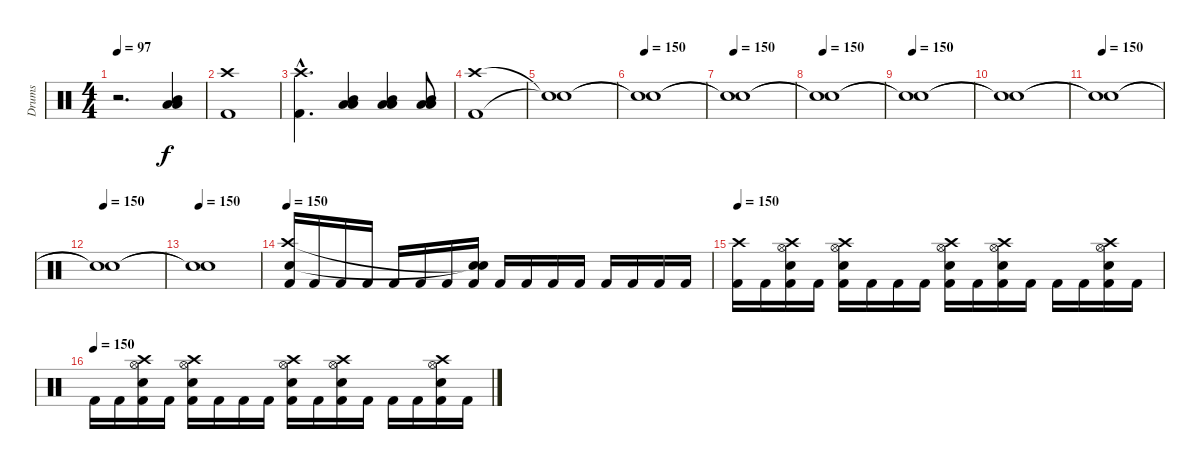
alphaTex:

\track ("Drums" "Drums") {instrument percussion}
\staff {score}
\articulation defaults
\ts (4 4)
\tempo 97
\clef neutral
\ks c
r.2{d dy f} ("Mid Tom (hit)" "Low Tom (hit)" "Low Tom (hit)").4 |
("Kick (hit) 2" "Crash high (hit)").1 |
("Kick (hit) 2"{hac} "Crash high (hit)"{hac}).4{d} ("Mid Tom (hit)" "Low Tom (hit)" "Low Tom (hit)").4 ("Mid Tom (hit)" "Low Tom (hit)" "Low Tom (hit)").4 ("Mid Tom (hit)" "Low Tom (hit)" "Low Tom (hit)").8 |
("Kick (hit) 2" "Crash high (hit)").1 |
("Snare (hit)"{t} "Snare (hit)"{t}).1 |
\tempo 150
("Snare (hit)"{t} "Snare (hit)"{t}).1 |
\tempo 150
("Snare (hit)"{t} "Snare (hit)"{t}).1 |
\tempo 150
("Snare (hit)"{t} "Snare (hit)"{t}).1 |
\tempo 150
("Snare (hit)"{t} "Snare (hit)"{t}).1 |
("Snare (hit)"{t} "Snare (hit)"{t}).1 |
\tempo 150
("Snare (hit)"{t} "Snare (hit)"{t}).1 |
\tempo 150
("Snare (hit)"{t} "Snare (hit)"{t}).1 |
\tempo 150
("Snare (hit)"{t} "Snare (hit)"{t}).1 |
\tempo 150
("Kick (hit) 2" "Electric Snare (hit)" "Crash high (hit)").16 "Kick (hit) 2".16 "Kick (hit) 2".16 "Kick (hit) 2".16 "Kick (hit) 2".16 "Kick (hit) 2".16 "Kick (hit) 2".16 ("Kick (hit) 2" "Snare (hit)"{t} "Snare (hit)"{t}).16 "Kick (hit) 2".16 "Kick (hit) 2".16 "Kick (hit) 2".16 "Kick (hit) 2".16 "Kick (hit) 2".16 "Kick (hit) 2".16 "Kick (hit) 2".16 "Kick (hit) 2".16 |
\tempo 150
("Kick (hit) 2" "Crash high (hit)").16 "Kick (hit) 2".16 ("Kick (hit) 2" "Electric Snare (hit)" "Hi-Hat (open)" "Crash high (hit)").16 "Kick (hit) 2".16 ("Kick (hit) 2" "Electric Snare (hit)" "Hi-Hat (open)" "Crash high (hit)").16 "Kick (hit) 2".16 "Kick (hit) 2".16 "Kick (hit) 2".16 ("Kick (hit) 2" "Electric Snare (hit)" "Hi-Hat (open)" "Crash high (hit)").16 "Kick (hit) 2".16 ("Kick (hit) 2" "Electric Snare (hit)" "Hi-Hat (open)" "Crash high (hit)").16 "Kick (hit) 2".16 "Kick (hit) 2".16 "Kick (hit) 2".16 ("Kick (hit) 2" "Electric Snare (hit)" "Hi-Hat (open)" "Crash high (hit)").16 "Kick (hit) 2".16 |
\tempo (150)
"Kick (hit) 2".16 "Kick (hit) 2".16 ("Kick (hit) 2" "Electric Snare (hit)" "Hi-Hat (open)" "Crash high (hit)").16 "Kick (hit) 2".16 ("Kick (hit) 2" "Electric Snare (hit)" "Hi-Hat (open)" "Crash high (hit)").16 "Kick (hit) 2".16 "Kick (hit) 2".16 "Kick (hit) 2".16 ("Kick (hit) 2" "Electric Snare (hit)" "Hi-Hat (open)" "Crash high (hit)").16 "Kick (hit) 2".16 ("Kick (hit) 2" "Electric Snare (hit)" "Hi-Hat (open)" "Crash high (hit)").16 "Kick (hit) 2".16 "Kick (hit) 2".16 "Kick (hit) 2".16 ("Kick (hit) 2" "Electric Snare (hit)" "Hi-Hat (open)" "Crash high (hit)").16 "Kick (hit) 2".16
